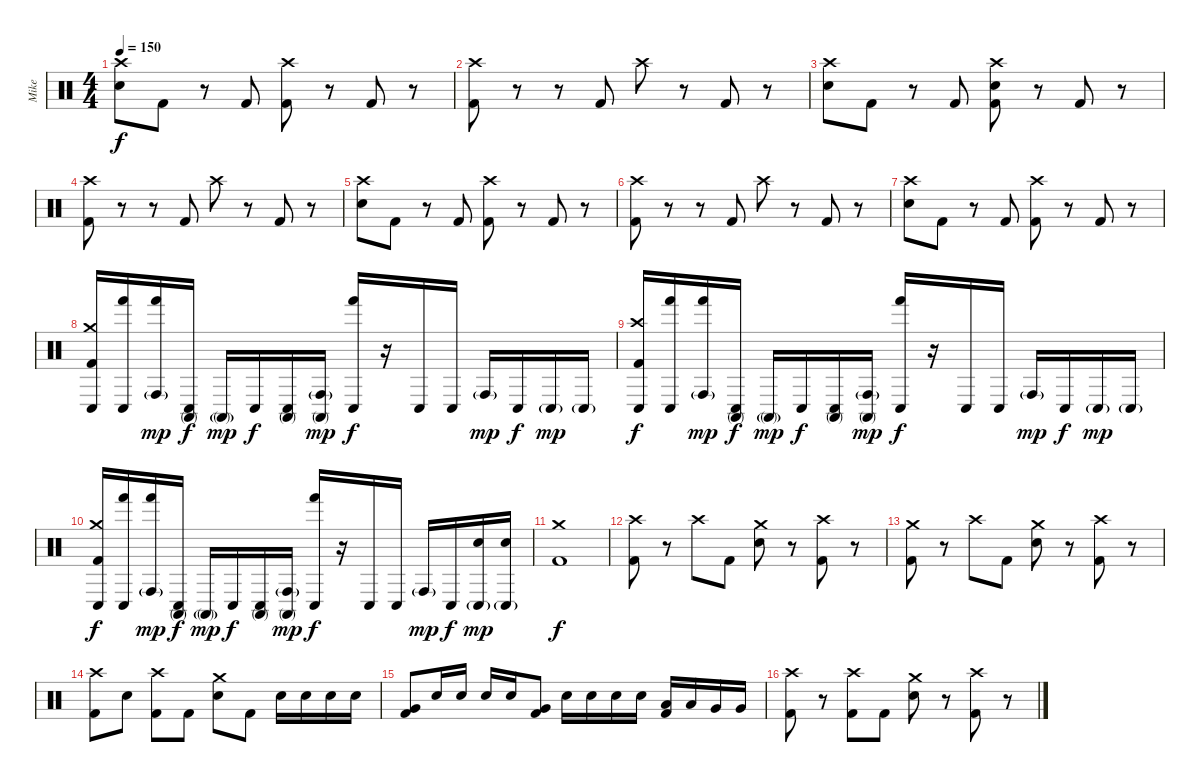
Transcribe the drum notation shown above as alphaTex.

\track ("Mike" "Mike") {instrument percussion}
\staff {score}
\articulation defaults
\ts (4 4)
\tempo 150
\clef neutral
\ks c
("Crash high (hit)" "Electric Snare (hit)").8{dy f} "Kick (hit) 2".8 r.8 "Kick (hit) 2".8 ("Crash high (hit)" "Kick (hit) 2").8 r.8 "Kick (hit) 2".8 r.8 |
("Crash high (hit)" "Kick (hit) 2").8 r.8 r.8 "Kick (hit) 2".8 "Crash high (hit)".8 r.8 "Kick (hit) 2".8 r.8 |
("Crash high (hit)" "Electric Snare (hit)").8 "Kick (hit) 2".8 r.8 "Kick (hit) 2".8 ("Crash high (hit)" "Electric Snare (hit)" "Kick (hit) 2").8 r.8 "Kick (hit) 2".8 r.8 |
("Crash high (hit)" "Kick (hit) 2").8 r.8 r.8 "Kick (hit) 2".8 "Crash high (hit)".8 r.8 "Kick (hit) 2".8 r.8 |
("Crash high (hit)" "Electric Snare (hit)").8 "Kick (hit) 2".8 r.8 "Kick (hit) 2".8 ("Crash high (hit)" "Kick (hit) 2").8 r.8 "Kick (hit) 2".8 r.8 |
("Crash high (hit)" "Kick (hit) 2").8 r.8 r.8 "Kick (hit) 2".8 "Crash high (hit)".8 r.8 "Kick (hit) 2".8 r.8 |
("Crash high (hit)" "Electric Snare (hit)").8 "Kick (hit) 2".8 r.8 "Kick (hit) 2".8 ("Crash high (hit)" "Kick (hit) 2").8 r.8 "Kick (hit) 2".8 r.8 |
("Crash medium (hit)" "Conga low (hit)" "Kick (hit) 2").16 ("Hand (hit)" "Conga low (hit)").16 ("Hand (hit)" "Conga high (hit)"{g}).16{dy mp} ("Conga high (mute)" "Conga low (hit)").16{dy f} "Conga high (mute)"{g}.16{dy mp} "Conga low (hit)".16{dy f} ("Conga high (mute)" "Conga low (hit)").16 ("Conga high (mute)" "Conga high (hit)"{g}).16{dy mp} ("Hand (hit)" "Conga low (hit)").16{dy f} r.16 "Conga low (hit)".16 "Conga low (hit)".16 "Conga high (hit)"{g}.16{dy mp} "Conga low (hit)".16{dy f} "Conga low (hit)"{g}.16{dy mp} "Conga low (hit)"{g}.16 |
("Crash high (hit)" "Conga low (hit)" "Kick (hit) 2").16{dy f} ("Hand (hit)" "Conga low (hit)").16 ("Hand (hit)" "Conga high (hit)"{g}).16{dy mp} ("Conga high (mute)" "Conga low (hit)").16{dy f} "Conga high (mute)"{g}.16{dy mp} "Conga low (hit)".16{dy f} ("Conga high (mute)" "Conga low (hit)").16 ("Conga high (mute)" "Conga high (hit)"{g}).16{dy mp} ("Hand (hit)" "Conga low (hit)").16{dy f} r.16 "Conga low (hit)".16 "Conga low (hit)".16 "Conga high (hit)"{g}.16{dy mp} "Conga low (hit)".16{dy f} "Conga low (hit)"{g}.16{dy mp} "Conga low (hit)"{g}.16 |
("Crash medium (hit)" "Conga low (hit)" "Kick (hit) 2").16{dy f} ("Hand (hit)" "Conga low (hit)").16 ("Hand (hit)" "Conga high (hit)"{g}).16{dy mp} ("Conga high (mute)" "Conga low (hit)").16{dy f} "Conga high (mute)"{g}.16{dy mp} "Conga low (hit)".16{dy f} ("Conga high (mute)" "Conga low (hit)").16 ("Conga high (mute)" "Conga high (hit)"{g}).16{dy mp} ("Hand (hit)" "Conga low (hit)").16{dy f} r.16 "Conga low (hit)".16 "Conga low (hit)".16 "Conga high (hit)"{g}.16{dy mp} "Conga low (hit)".16{dy f} ("Conga low (hit)"{g} "Electric Snare (hit)").16{dy mp} ("Conga low (hit)"{g} "Electric Snare (hit)").16 |
("Crash medium (hit)" "Kick (hit) 2").1{dy f} |
("Crash high (hit)" "Kick (hit) 2").8 r.8 "Crash high (hit)".8 "Kick (hit) 2".8 ("Crash medium (hit)" "Electric Snare (hit)").8 r.8 ("Crash high (hit)" "Kick (hit) 2").8 r.8 |
("Crash medium (hit)" "Kick (hit) 2").8 r.8 "Crash high (hit)".8 "Kick (hit) 2".8 ("Crash medium (hit)" "Electric Snare (hit)").8 r.8 ("Crash high (hit)" "Kick (hit) 2").8 r.8 |
("Crash high (hit)" "Kick (hit) 2").8 "Electric Snare (hit)".8 ("Crash high (hit)" "Kick (hit) 2").8 "Kick (hit) 2".8 ("Crash medium (hit)" "Electric Snare (hit)").8 "Kick (hit) 2".8 "Electric Snare (hit)".16 "Electric Snare (hit)".16 "Electric Snare (hit)".16 "Electric Snare (hit)".16 |
("Very Low Tom (hit)" "Kick (hit) 2").8 "Electric Snare (hit)".16 "Electric Snare (hit)".16 "Electric Snare (hit)".16 "Electric Snare (hit)".16 ("Very Low Tom (hit)" "Kick (hit) 2").8 "Electric Snare (hit)".16 "Electric Snare (hit)".16 "Electric Snare (hit)".16 "Electric Snare (hit)".16 ("Low Tom (hit)" "Kick (hit) 2").16 "Low Tom (hit)".16 "Very Low Tom (hit)".16 "Very Low Tom (hit)".16 |
("Crash high (hit)" "Kick (hit) 2").8 r.8 ("Crash high (hit)" "Kick (hit) 2").8 "Kick (hit) 2".8 ("Crash medium (hit)" "Electric Snare (hit)").8 r.8 ("Crash high (hit)" "Kick (hit) 2").8 r.8
